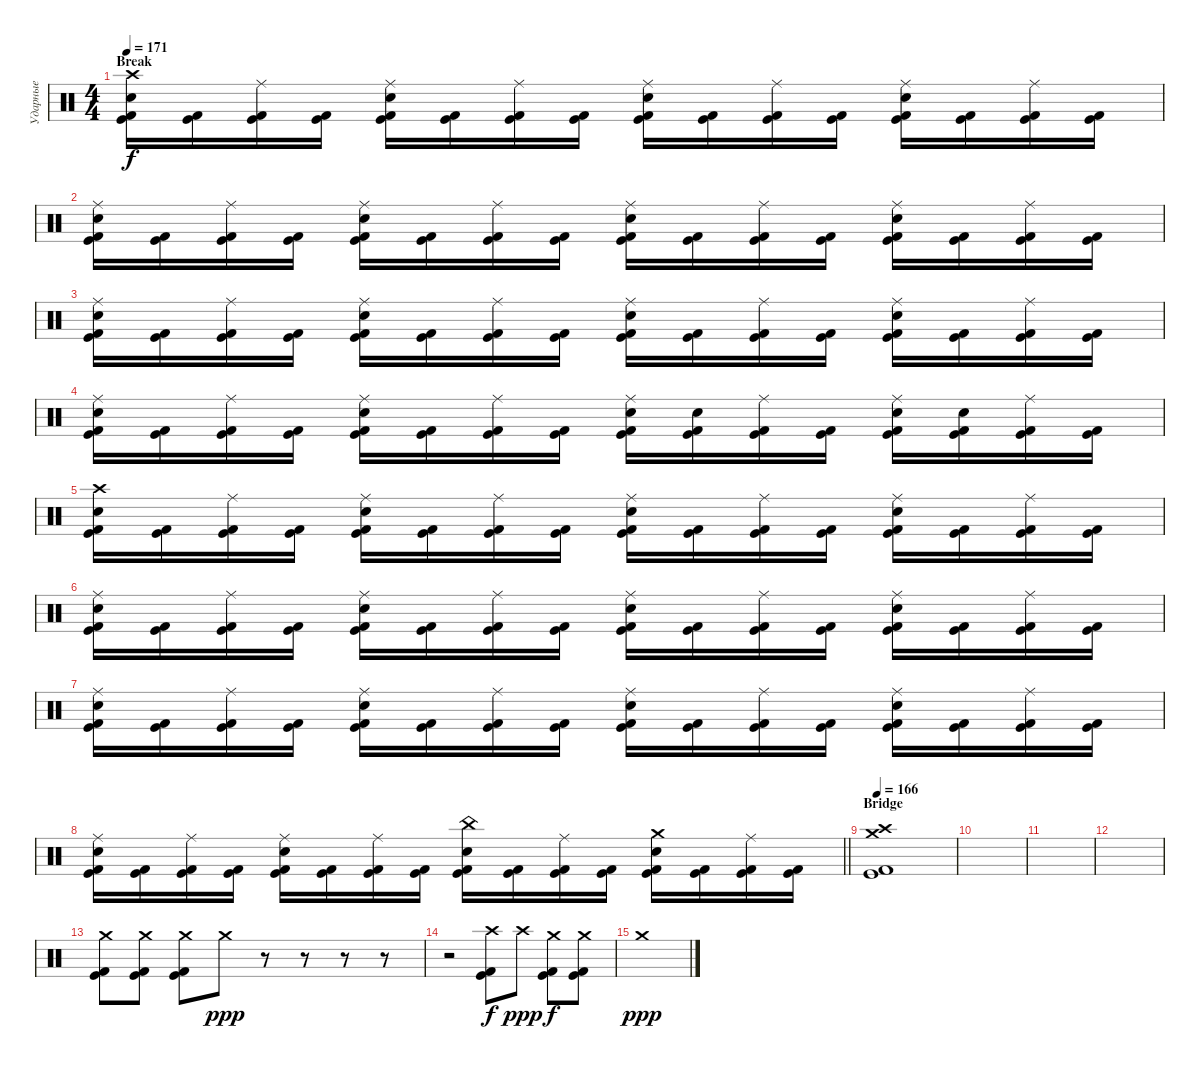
\track ("Ударные" "Ударные") {instrument percussion}
\staff {score}
\articulation defaults
\ts (4 4)
\section ("" "Break")
\tempo 171
\clef neutral
\ks c
("Crash high (hit)" "Electric Snare (hit)" "Kick (hit)" "Kick (hit) 2").16{dy f} ("Kick (hit)" "Kick (hit) 2").16 ("Ride (middle)" "Kick (hit)" "Kick (hit) 2").16 ("Kick (hit)" "Kick (hit) 2").16 ("Ride (middle)" "Electric Snare (hit)" "Kick (hit)" "Kick (hit) 2").16 ("Kick (hit)" "Kick (hit) 2").16 ("Ride (middle)" "Kick (hit)" "Kick (hit) 2").16 ("Kick (hit)" "Kick (hit) 2").16 ("Ride (middle)" "Electric Snare (hit)" "Kick (hit)" "Kick (hit) 2").16 ("Kick (hit)" "Kick (hit) 2").16 ("Ride (middle)" "Kick (hit)" "Kick (hit) 2").16 ("Kick (hit)" "Kick (hit) 2").16 ("Ride (middle)" "Electric Snare (hit)" "Kick (hit)" "Kick (hit) 2").16 ("Kick (hit)" "Kick (hit) 2").16 ("Ride (middle)" "Kick (hit)" "Kick (hit) 2").16 ("Kick (hit)" "Kick (hit) 2").16 |
("Ride (middle)" "Electric Snare (hit)" "Kick (hit)" "Kick (hit) 2").16 ("Kick (hit)" "Kick (hit) 2").16 ("Ride (middle)" "Kick (hit)" "Kick (hit) 2").16 ("Kick (hit)" "Kick (hit) 2").16 ("Ride (middle)" "Electric Snare (hit)" "Kick (hit)" "Kick (hit) 2").16 ("Kick (hit)" "Kick (hit) 2").16 ("Ride (middle)" "Kick (hit)" "Kick (hit) 2").16 ("Kick (hit)" "Kick (hit) 2").16 ("Ride (middle)" "Electric Snare (hit)" "Kick (hit)" "Kick (hit) 2").16 ("Kick (hit)" "Kick (hit) 2").16 ("Ride (middle)" "Kick (hit)" "Kick (hit) 2").16 ("Kick (hit)" "Kick (hit) 2").16 ("Ride (middle)" "Electric Snare (hit)" "Kick (hit)" "Kick (hit) 2").16 ("Kick (hit)" "Kick (hit) 2").16 ("Ride (middle)" "Kick (hit)" "Kick (hit) 2").16 ("Kick (hit)" "Kick (hit) 2").16 |
("Ride (middle)" "Electric Snare (hit)" "Kick (hit)" "Kick (hit) 2").16 ("Kick (hit)" "Kick (hit) 2").16 ("Ride (middle)" "Kick (hit)" "Kick (hit) 2").16 ("Kick (hit)" "Kick (hit) 2").16 ("Ride (middle)" "Electric Snare (hit)" "Kick (hit)" "Kick (hit) 2").16 ("Kick (hit)" "Kick (hit) 2").16 ("Ride (middle)" "Kick (hit)" "Kick (hit) 2").16 ("Kick (hit)" "Kick (hit) 2").16 ("Ride (middle)" "Electric Snare (hit)" "Kick (hit)" "Kick (hit) 2").16 ("Kick (hit)" "Kick (hit) 2").16 ("Ride (middle)" "Kick (hit)" "Kick (hit) 2").16 ("Kick (hit)" "Kick (hit) 2").16 ("Ride (middle)" "Electric Snare (hit)" "Kick (hit)" "Kick (hit) 2").16 ("Kick (hit)" "Kick (hit) 2").16 ("Ride (middle)" "Kick (hit)" "Kick (hit) 2").16 ("Kick (hit)" "Kick (hit) 2").16 |
("Ride (middle)" "Electric Snare (hit)" "Kick (hit)" "Kick (hit) 2").16 ("Kick (hit)" "Kick (hit) 2").16 ("Ride (middle)" "Kick (hit)" "Kick (hit) 2").16 ("Kick (hit)" "Kick (hit) 2").16 ("Ride (middle)" "Electric Snare (hit)" "Kick (hit)" "Kick (hit) 2").16 ("Kick (hit)" "Kick (hit) 2").16 ("Ride (middle)" "Kick (hit)" "Kick (hit) 2").16 ("Kick (hit)" "Kick (hit) 2").16 ("Ride (middle)" "Electric Snare (hit)" "Kick (hit)" "Kick (hit) 2").16 ("Electric Snare (hit)" "Kick (hit)" "Kick (hit) 2").16 ("Ride (middle)" "Kick (hit)" "Kick (hit) 2").16 ("Kick (hit)" "Kick (hit) 2").16 ("Ride (middle)" "Electric Snare (hit)" "Kick (hit)" "Kick (hit) 2").16 ("Electric Snare (hit)" "Kick (hit)" "Kick (hit) 2").16 ("Ride (middle)" "Kick (hit)" "Kick (hit) 2").16 ("Kick (hit)" "Kick (hit) 2").16 |
("Crash high (hit)" "Electric Snare (hit)" "Kick (hit)" "Kick (hit) 2").16 ("Kick (hit)" "Kick (hit) 2").16 ("Ride (middle)" "Kick (hit)" "Kick (hit) 2").16 ("Kick (hit)" "Kick (hit) 2").16 ("Ride (middle)" "Electric Snare (hit)" "Kick (hit)" "Kick (hit) 2").16 ("Kick (hit)" "Kick (hit) 2").16 ("Ride (middle)" "Kick (hit)" "Kick (hit) 2").16 ("Kick (hit)" "Kick (hit) 2").16 ("Ride (middle)" "Electric Snare (hit)" "Kick (hit)" "Kick (hit) 2").16 ("Kick (hit)" "Kick (hit) 2").16 ("Ride (middle)" "Kick (hit)" "Kick (hit) 2").16 ("Kick (hit)" "Kick (hit) 2").16 ("Ride (middle)" "Electric Snare (hit)" "Kick (hit)" "Kick (hit) 2").16 ("Kick (hit)" "Kick (hit) 2").16 ("Ride (middle)" "Kick (hit)" "Kick (hit) 2").16 ("Kick (hit)" "Kick (hit) 2").16 |
("Ride (middle)" "Electric Snare (hit)" "Kick (hit)" "Kick (hit) 2").16 ("Kick (hit)" "Kick (hit) 2").16 ("Ride (middle)" "Kick (hit)" "Kick (hit) 2").16 ("Kick (hit)" "Kick (hit) 2").16 ("Ride (middle)" "Electric Snare (hit)" "Kick (hit)" "Kick (hit) 2").16 ("Kick (hit)" "Kick (hit) 2").16 ("Ride (middle)" "Kick (hit)" "Kick (hit) 2").16 ("Kick (hit)" "Kick (hit) 2").16 ("Ride (middle)" "Electric Snare (hit)" "Kick (hit)" "Kick (hit) 2").16 ("Kick (hit)" "Kick (hit) 2").16 ("Ride (middle)" "Kick (hit)" "Kick (hit) 2").16 ("Kick (hit)" "Kick (hit) 2").16 ("Ride (middle)" "Electric Snare (hit)" "Kick (hit)" "Kick (hit) 2").16 ("Kick (hit)" "Kick (hit) 2").16 ("Ride (middle)" "Kick (hit)" "Kick (hit) 2").16 ("Kick (hit)" "Kick (hit) 2").16 |
("Ride (middle)" "Electric Snare (hit)" "Kick (hit)" "Kick (hit) 2").16 ("Kick (hit)" "Kick (hit) 2").16 ("Ride (middle)" "Kick (hit)" "Kick (hit) 2").16 ("Kick (hit)" "Kick (hit) 2").16 ("Ride (middle)" "Electric Snare (hit)" "Kick (hit)" "Kick (hit) 2").16 ("Kick (hit)" "Kick (hit) 2").16 ("Ride (middle)" "Kick (hit)" "Kick (hit) 2").16 ("Kick (hit)" "Kick (hit) 2").16 ("Ride (middle)" "Electric Snare (hit)" "Kick (hit)" "Kick (hit) 2").16 ("Kick (hit)" "Kick (hit) 2").16 ("Ride (middle)" "Kick (hit)" "Kick (hit) 2").16 ("Kick (hit)" "Kick (hit) 2").16 ("Ride (middle)" "Electric Snare (hit)" "Kick (hit)" "Kick (hit) 2").16 ("Kick (hit)" "Kick (hit) 2").16 ("Ride (middle)" "Kick (hit)" "Kick (hit) 2").16 ("Kick (hit)" "Kick (hit) 2").16 |
\barLineRight lightlight
("Ride (middle)" "Electric Snare (hit)" "Kick (hit)" "Kick (hit) 2").16 ("Kick (hit)" "Kick (hit) 2").16 ("Ride (middle)" "Kick (hit)" "Kick (hit) 2").16 ("Kick (hit)" "Kick (hit) 2").16 ("Ride (middle)" "Electric Snare (hit)" "Kick (hit)" "Kick (hit) 2").16 ("Kick (hit)" "Kick (hit) 2").16 ("Ride (middle)" "Kick (hit)" "Kick (hit) 2").16 ("Kick (hit)" "Kick (hit) 2").16 ("China (hit)" "Electric Snare (hit)" "Kick (hit)" "Kick (hit) 2").16 ("Kick (hit)" "Kick (hit) 2").16 ("Ride (middle)" "Kick (hit)" "Kick (hit) 2").16 ("Kick (hit)" "Kick (hit) 2").16 ("Crash medium (hit)" "Electric Snare (hit)" "Kick (hit)" "Kick (hit) 2").16 ("Kick (hit)" "Kick (hit) 2").16 ("Ride (middle)" "Kick (hit)" "Kick (hit) 2").16 ("Kick (hit)" "Kick (hit) 2").16 |
\section ("" "Bridge")
\tempo 166
("Crash high (hit)" "Crash medium (hit)" "Kick (hit)" "Kick (hit) 2").1 |
|
|
|
("Crash medium (hit)" "Kick (hit)" "Kick (hit) 2").8 ("Crash medium (hit)" "Kick (hit)" "Kick (hit) 2").8 ("Crash medium (hit)" "Kick (hit)" "Kick (hit) 2").8 "Crash medium (hit)".8{dy ppp} r.8 r.8 r.8 r.8 |
r.2 ("Crash high (hit)" "Kick (hit)" "Kick (hit) 2").8{dy f} "Crash high (hit)".8{dy ppp} ("Crash medium (hit)" "Kick (hit)" "Kick (hit) 2").8{dy f} ("Crash medium (hit)" "Kick (hit)" "Kick (hit) 2").8 |
"Crash medium (hit)".1{dy ppp}
